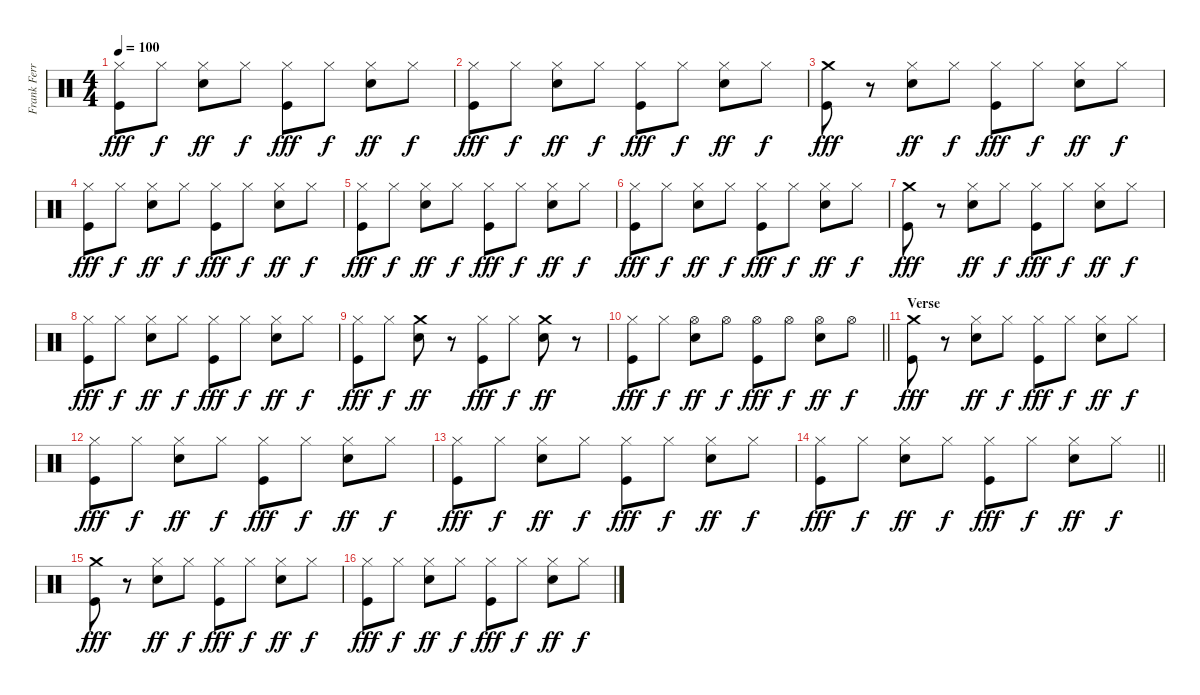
\track ("Frank Ferrer" "Frank Ferr") {instrument percussion}
\staff {score}
\articulation defaults
\ts (4 4)
\tempo 100
\clef neutral
\ks c
("Kick (hit)" "Hi-Hat (closed)").8{dy fff} "Hi-Hat (closed)".8{dy f} ("Snare (hit) 2" "Hi-Hat (closed)").8{dy ff} "Hi-Hat (closed)".8{dy f} ("Kick (hit)" "Hi-Hat (closed)").8{dy fff} "Hi-Hat (closed)".8{dy f} ("Snare (hit) 2" "Hi-Hat (closed)").8{dy ff} "Hi-Hat (closed)".8{dy f} |
("Kick (hit)" "Hi-Hat (closed)").8{dy fff} "Hi-Hat (closed)".8{dy f} ("Snare (hit) 2" "Hi-Hat (closed)").8{dy ff} "Hi-Hat (closed)".8{dy f} ("Kick (hit)" "Hi-Hat (closed)").8{dy fff} "Hi-Hat (closed)".8{dy f} ("Snare (hit) 2" "Hi-Hat (closed)").8{dy ff} "Hi-Hat (closed)".8{dy f} |
("Kick (hit)" "Crash medium (hit)").8{dy fff} r.8 ("Snare (hit) 2" "Hi-Hat (closed)").8{dy ff} "Hi-Hat (closed)".8{dy f} ("Kick (hit)" "Hi-Hat (closed)").8{dy fff} "Hi-Hat (closed)".8{dy f} ("Snare (hit) 2" "Hi-Hat (closed)").8{dy ff} "Hi-Hat (closed)".8{dy f} |
("Kick (hit)" "Hi-Hat (closed)").8{dy fff} "Hi-Hat (closed)".8{dy f} ("Snare (hit) 2" "Hi-Hat (closed)").8{dy ff} "Hi-Hat (closed)".8{dy f} ("Kick (hit)" "Hi-Hat (closed)").8{dy fff} "Hi-Hat (closed)".8{dy f} ("Snare (hit) 2" "Hi-Hat (closed)").8{dy ff} "Hi-Hat (closed)".8{dy f} |
("Kick (hit)" "Hi-Hat (closed)").8{dy fff} "Hi-Hat (closed)".8{dy f} ("Snare (hit) 2" "Hi-Hat (closed)").8{dy ff} "Hi-Hat (closed)".8{dy f} ("Kick (hit)" "Hi-Hat (closed)").8{dy fff} "Hi-Hat (closed)".8{dy f} ("Snare (hit) 2" "Hi-Hat (closed)").8{dy ff} "Hi-Hat (closed)".8{dy f} |
("Kick (hit)" "Hi-Hat (closed)").8{dy fff} "Hi-Hat (closed)".8{dy f} ("Snare (hit) 2" "Hi-Hat (closed)").8{dy ff} "Hi-Hat (closed)".8{dy f} ("Kick (hit)" "Hi-Hat (closed)").8{dy fff} "Hi-Hat (closed)".8{dy f} ("Snare (hit) 2" "Hi-Hat (closed)").8{dy ff} "Hi-Hat (closed)".8{dy f} |
("Kick (hit)" "Crash medium (hit)").8{dy fff} r.8 ("Snare (hit) 2" "Hi-Hat (closed)").8{dy ff} "Hi-Hat (closed)".8{dy f} ("Kick (hit)" "Hi-Hat (closed)").8{dy fff} "Hi-Hat (closed)".8{dy f} ("Snare (hit) 2" "Hi-Hat (closed)").8{dy ff} "Hi-Hat (closed)".8{dy f} |
("Kick (hit)" "Hi-Hat (closed)").8{dy fff} "Hi-Hat (closed)".8{dy f} ("Snare (hit) 2" "Hi-Hat (closed)").8{dy ff} "Hi-Hat (closed)".8{dy f} ("Kick (hit)" "Hi-Hat (closed)").8{dy fff} "Hi-Hat (closed)".8{dy f} ("Snare (hit) 2" "Hi-Hat (closed)").8{dy ff} "Hi-Hat (closed)".8{dy f} |
("Kick (hit)" "Hi-Hat (closed)").8{dy fff} "Hi-Hat (closed)".8{dy f} ("Snare (hit) 2" "Crash medium (hit)").8{dy ff} r.8 ("Kick (hit)" "Hi-Hat (closed)").8{dy fff} "Hi-Hat (closed)".8{dy f} ("Snare (hit) 2" "Crash medium (hit)").8{dy ff} r.8 |
\barLineRight lightlight
("Kick (hit)" "Hi-Hat (closed)").8{dy fff} "Hi-Hat (closed)".8{dy f} ("Snare (hit) 2" "Hi-Hat (open)").8{dy ff} "Hi-Hat (open)".8{dy f} ("Kick (hit)" "Hi-Hat (open)").8{dy fff} "Hi-Hat (open)".8{dy f} ("Snare (hit) 2" "Hi-Hat (open)").8{dy ff} "Hi-Hat (open)".8{dy f} |
\section ("" "Verse")
("Kick (hit)" "Crash medium (hit)").8{dy fff} r.8 ("Snare (hit) 2" "Hi-Hat (closed)").8{dy ff} "Hi-Hat (closed)".8{dy f} ("Kick (hit)" "Hi-Hat (closed)").8{dy fff} "Hi-Hat (closed)".8{dy f} ("Snare (hit) 2" "Hi-Hat (closed)").8{dy ff} "Hi-Hat (closed)".8{dy f} |
("Kick (hit)" "Hi-Hat (closed)").8{dy fff} "Hi-Hat (closed)".8{dy f} ("Snare (hit) 2" "Hi-Hat (closed)").8{dy ff} "Hi-Hat (closed)".8{dy f} ("Kick (hit)" "Hi-Hat (closed)").8{dy fff} "Hi-Hat (closed)".8{dy f} ("Snare (hit) 2" "Hi-Hat (closed)").8{dy ff} "Hi-Hat (closed)".8{dy f} |
("Kick (hit)" "Hi-Hat (closed)").8{dy fff} "Hi-Hat (closed)".8{dy f} ("Snare (hit) 2" "Hi-Hat (closed)").8{dy ff} "Hi-Hat (closed)".8{dy f} ("Kick (hit)" "Hi-Hat (closed)").8{dy fff} "Hi-Hat (closed)".8{dy f} ("Snare (hit) 2" "Hi-Hat (closed)").8{dy ff} "Hi-Hat (closed)".8{dy f} |
\barLineRight lightlight
("Kick (hit)" "Hi-Hat (closed)").8{dy fff} "Hi-Hat (closed)".8{dy f} ("Snare (hit) 2" "Hi-Hat (closed)").8{dy ff} "Hi-Hat (closed)".8{dy f} ("Kick (hit)" "Hi-Hat (closed)").8{dy fff} "Hi-Hat (closed)".8{dy f} ("Snare (hit) 2" "Hi-Hat (closed)").8{dy ff} "Hi-Hat (closed)".8{dy f} |
("Kick (hit)" "Crash medium (hit)").8{dy fff} r.8 ("Snare (hit) 2" "Hi-Hat (closed)").8{dy ff} "Hi-Hat (closed)".8{dy f} ("Kick (hit)" "Hi-Hat (closed)").8{dy fff} "Hi-Hat (closed)".8{dy f} ("Snare (hit) 2" "Hi-Hat (closed)").8{dy ff} "Hi-Hat (closed)".8{dy f} |
("Kick (hit)" "Hi-Hat (closed)").8{dy fff} "Hi-Hat (closed)".8{dy f} ("Snare (hit) 2" "Hi-Hat (closed)").8{dy ff} "Hi-Hat (closed)".8{dy f} ("Kick (hit)" "Hi-Hat (closed)").8{dy fff} "Hi-Hat (closed)".8{dy f} ("Snare (hit) 2" "Hi-Hat (closed)").8{dy ff} "Hi-Hat (closed)".8{dy f}
